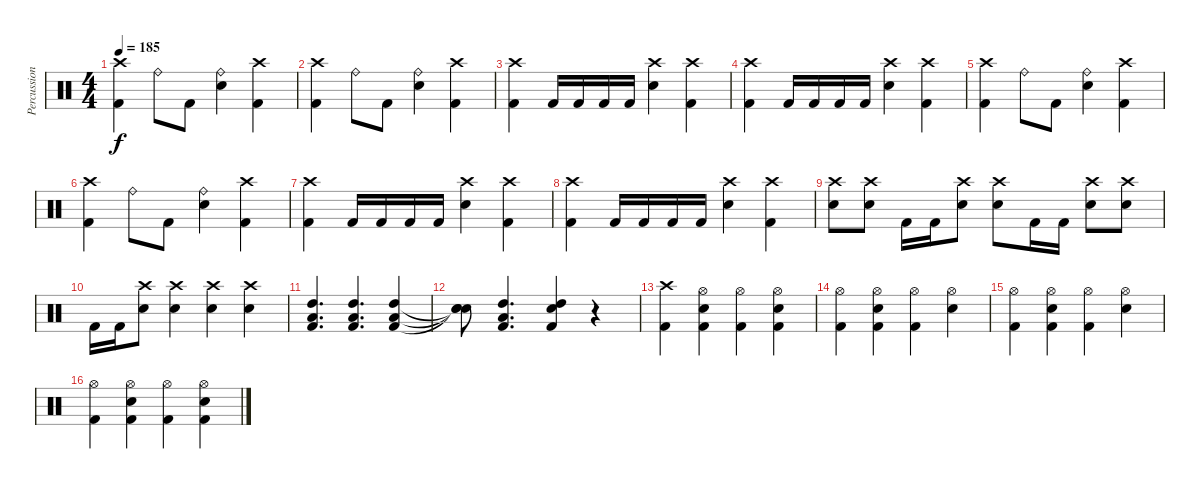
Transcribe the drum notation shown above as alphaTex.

\track ("Percussion" "Percussion") {instrument percussion}
\staff {score}
\articulation defaults
\ts (4 4)
\tempo 185
\clef neutral
\ks c
("Crash high (hit)" "Kick (hit) 2").4{dy f} "Ride (bell)".8 "Kick (hit) 2".8 ("Ride (bell)" "Snare (hit) 2").4 ("Crash high (hit)" "Kick (hit) 2").4 |
("Crash high (hit)" "Kick (hit) 2").4 "Ride (bell)".8 "Kick (hit) 2".8 ("Ride (bell)" "Snare (hit) 2").4 ("Crash high (hit)" "Kick (hit) 2").4 |
("Crash high (hit)" "Kick (hit) 2").4 "Kick (hit) 2".16 "Kick (hit) 2".16 "Kick (hit) 2".16 "Kick (hit) 2".16 ("Crash high (hit)" "Snare (hit) 2").4 ("Crash high (hit)" "Kick (hit) 2").4 |
("Crash high (hit)" "Kick (hit) 2").4 "Kick (hit) 2".16 "Kick (hit) 2".16 "Kick (hit) 2".16 "Kick (hit) 2".16 ("Crash high (hit)" "Snare (hit) 2").4 ("Crash high (hit)" "Kick (hit) 2").4 |
("Crash high (hit)" "Kick (hit) 2").4 "Ride (bell)".8 "Kick (hit) 2".8 ("Ride (bell)" "Snare (hit) 2").4 ("Crash high (hit)" "Kick (hit) 2").4 |
("Crash high (hit)" "Kick (hit) 2").4 "Ride (bell)".8 "Kick (hit) 2".8 ("Ride (bell)" "Snare (hit) 2").4 ("Crash high (hit)" "Kick (hit) 2").4 |
("Crash high (hit)" "Kick (hit) 2").4 "Kick (hit) 2".16 "Kick (hit) 2".16 "Kick (hit) 2".16 "Kick (hit) 2".16 ("Crash high (hit)" "Snare (hit) 2").4 ("Crash high (hit)" "Kick (hit) 2").4 |
("Crash high (hit)" "Kick (hit) 2").4 "Kick (hit) 2".16 "Kick (hit) 2".16 "Kick (hit) 2".16 "Kick (hit) 2".16 ("Crash high (hit)" "Snare (hit) 2").4 ("Crash high (hit)" "Kick (hit) 2").4 |
("Crash high (hit)" "Snare (hit) 2").8 ("Crash high (hit)" "Snare (hit) 2").8 "Kick (hit) 2".16 "Kick (hit) 2".16 ("Crash high (hit)" "Snare (hit) 2").8 ("Crash high (hit)" "Snare (hit) 2").8 "Kick (hit) 2".16 "Kick (hit) 2".16 ("Crash high (hit)" "Snare (hit) 2").8 ("Crash high (hit)" "Snare (hit) 2").8 |
"Kick (hit) 2".16 "Kick (hit) 2".16 ("Crash high (hit)" "Snare (hit) 2").8 ("Crash high (hit)" "Snare (hit) 2").4 ("Crash high (hit)" "Snare (hit) 2").4 ("Crash high (hit)" "Snare (hit) 2").4 |
("Low Tom (hit)" "High Tom (hit)" "Kick (hit) 2").4{d} ("Low Tom (hit)" "High Tom (hit)" "Kick (hit) 2").4{d} ("Low Tom (hit)" "High Tom (hit)" "Kick (hit) 2").4 |
("Snare (hit)"{t} "Snare (hit)"{t} "Snare (hit)"{t}).8 ("Low Tom (hit)" "High Tom (hit)" "Kick (hit) 2").4{d} ("Snare (hit) 2" "High Tom (hit)" "Kick (hit) 2").4 r.4 |
("Crash high (hit)" "Kick (hit) 2").4 ("Hi-Hat (open)" "Snare (hit) 2" "Kick (hit) 2").4 ("Hi-Hat (open)" "Kick (hit) 2").4 ("Hi-Hat (open)" "Snare (hit) 2" "Kick (hit) 2").4 |
("Hi-Hat (open)" "Kick (hit) 2").4 ("Hi-Hat (open)" "Snare (hit) 2" "Kick (hit) 2").4 ("Hi-Hat (open)" "Kick (hit) 2").4 ("Hi-Hat (open)" "Snare (hit) 2").4 |
("Hi-Hat (open)" "Kick (hit) 2").4 ("Hi-Hat (open)" "Snare (hit) 2" "Kick (hit) 2").4 ("Hi-Hat (open)" "Kick (hit) 2").4 ("Hi-Hat (open)" "Snare (hit) 2").4 |
("Hi-Hat (open)" "Kick (hit) 2").4 ("Hi-Hat (open)" "Snare (hit) 2" "Kick (hit) 2").4 ("Hi-Hat (open)" "Kick (hit) 2").4 ("Hi-Hat (open)" "Snare (hit) 2" "Kick (hit) 2").4
